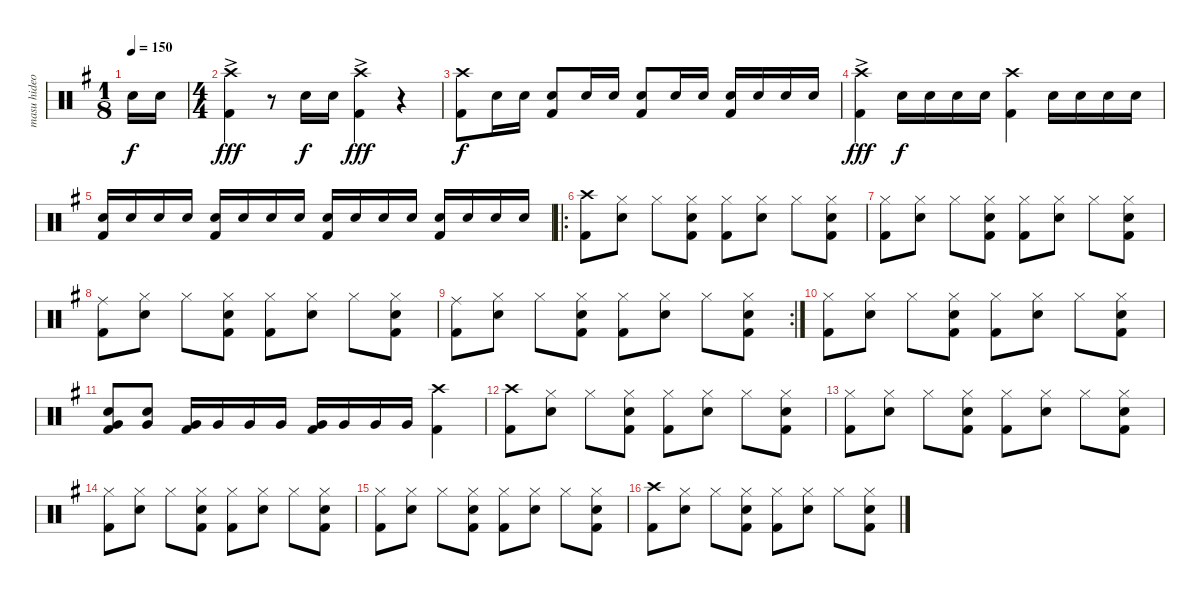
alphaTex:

\track ("masu hideo - drum" "masu hideo") {instrument percussion}
\staff {score}
\articulation defaults
\ts (1 8)
\tempo 150
\clef neutral
\ks g "Electric Snare (hit)".16{dy f} "Electric Snare (hit)".16
|
\ts (4 4)
("Crash high (hit)" "Kick (hit) 2"{ac}).4{dy fff} r.8 "Electric Snare (hit)".16{dy f} "Electric Snare (hit)".16 ("Crash high (hit)" "Kick (hit) 2"{ac}).4{dy fff} r.4 |
("Crash high (hit)" "Kick (hit) 2").8{dy f} "Electric Snare (hit)".16 "Electric Snare (hit)".16 ("Electric Snare (hit)" "Kick (hit) 2").8 "Electric Snare (hit)".16 "Electric Snare (hit)".16 ("Electric Snare (hit)" "Kick (hit) 2").8 "Electric Snare (hit)".16 "Electric Snare (hit)".16 ("Electric Snare (hit)" "Kick (hit) 2").16 "Electric Snare (hit)".16 "Electric Snare (hit)".16 "Electric Snare (hit)".16 |
("Crash high (hit)" "Kick (hit) 2"{ac}).4{dy fff} "Electric Snare (hit)".16{dy f} "Electric Snare (hit)".16 "Electric Snare (hit)".16 "Electric Snare (hit)".16 ("Crash high (hit)" "Kick (hit) 2").4 "Electric Snare (hit)".16 "Electric Snare (hit)".16 "Electric Snare (hit)".16 "Electric Snare (hit)".16 |
("Electric Snare (hit)" "Kick (hit) 2").16 "Electric Snare (hit)".16 "Electric Snare (hit)".16 "Electric Snare (hit)".16 ("Electric Snare (hit)" "Kick (hit) 2").16 "Electric Snare (hit)".16 "Electric Snare (hit)".16 "Electric Snare (hit)".16 ("Electric Snare (hit)" "Kick (hit) 2").16 "Electric Snare (hit)".16 "Electric Snare (hit)".16 "Electric Snare (hit)".16 ("Electric Snare (hit)" "Kick (hit) 2").16 "Electric Snare (hit)".16 "Electric Snare (hit)".16 "Electric Snare (hit)".16 |
\ro
("Crash high (hit)" "Kick (hit) 2").8 ("Hi-Hat (closed)" "Electric Snare (hit)").8 "Hi-Hat (closed)".8 ("Hi-Hat (closed)" "Electric Snare (hit)" "Kick (hit) 2").8 ("Hi-Hat (closed)" "Kick (hit) 2").8 ("Hi-Hat (closed)" "Electric Snare (hit)").8 "Hi-Hat (closed)".8 ("Hi-Hat (closed)" "Electric Snare (hit)" "Kick (hit) 2").8 |
("Hi-Hat (closed)" "Kick (hit) 2").8 ("Hi-Hat (closed)" "Electric Snare (hit)").8 "Hi-Hat (closed)".8 ("Hi-Hat (closed)" "Electric Snare (hit)" "Kick (hit) 2").8 ("Hi-Hat (closed)" "Kick (hit) 2").8 ("Hi-Hat (closed)" "Electric Snare (hit)").8 "Hi-Hat (closed)".8 ("Hi-Hat (closed)" "Electric Snare (hit)" "Kick (hit) 2").8 |
("Ride (middle)" "Kick (hit) 2").8 ("Hi-Hat (closed)" "Electric Snare (hit)").8 "Hi-Hat (closed)".8 ("Hi-Hat (closed)" "Electric Snare (hit)" "Kick (hit) 2").8 ("Hi-Hat (closed)" "Kick (hit) 2").8 ("Hi-Hat (closed)" "Electric Snare (hit)").8 "Hi-Hat (closed)".8 ("Hi-Hat (closed)" "Electric Snare (hit)" "Kick (hit) 2").8 |
\rc 2
("Ride (middle)" "Kick (hit) 2").8 ("Hi-Hat (closed)" "Electric Snare (hit)").8 "Hi-Hat (closed)".8 ("Hi-Hat (closed)" "Electric Snare (hit)" "Kick (hit) 2").8 ("Hi-Hat (closed)" "Kick (hit) 2").8 ("Hi-Hat (closed)" "Electric Snare (hit)").8 "Hi-Hat (closed)".8 ("Hi-Hat (closed)" "Electric Snare (hit)" "Kick (hit) 2").8 |
("Hi-Hat (closed)" "Kick (hit) 2").8 ("Hi-Hat (closed)" "Electric Snare (hit)").8 "Hi-Hat (closed)".8 ("Hi-Hat (closed)" "Electric Snare (hit)" "Kick (hit) 2").8 ("Hi-Hat (closed)" "Kick (hit) 2").8 ("Hi-Hat (closed)" "Electric Snare (hit)").8 "Hi-Hat (closed)".8 ("Hi-Hat (closed)" "Electric Snare (hit)" "Kick (hit) 2").8 |
("Electric Snare (hit)" "Very Low Tom (hit)" "Kick (hit) 2").8 ("Electric Snare (hit)" "Very Low Tom (hit)").8 ("Very Low Tom (hit)" "Kick (hit) 2").16 "Very Low Tom (hit)".16 "Very Low Tom (hit)".16 "Very Low Tom (hit)".16 ("Very Low Tom (hit)" "Kick (hit) 2").16 "Very Low Tom (hit)".16 "Very Low Tom (hit)".16 "Very Low Tom (hit)".16 ("Crash high (hit)" "Kick (hit) 2").4 |
("Crash high (hit)" "Kick (hit) 2").8 ("Hi-Hat (closed)" "Electric Snare (hit)").8 "Hi-Hat (closed)".8 ("Hi-Hat (closed)" "Electric Snare (hit)" "Kick (hit) 2").8 ("Hi-Hat (closed)" "Kick (hit) 2").8 ("Hi-Hat (closed)" "Electric Snare (hit)").8 "Hi-Hat (closed)".8 ("Hi-Hat (closed)" "Electric Snare (hit)" "Kick (hit) 2").8 |
("Hi-Hat (closed)" "Kick (hit) 2").8 ("Hi-Hat (closed)" "Electric Snare (hit)").8 "Hi-Hat (closed)".8 ("Hi-Hat (closed)" "Electric Snare (hit)" "Kick (hit) 2").8 ("Hi-Hat (closed)" "Kick (hit) 2").8 ("Hi-Hat (closed)" "Electric Snare (hit)").8 "Hi-Hat (closed)".8 ("Hi-Hat (closed)" "Electric Snare (hit)" "Kick (hit) 2").8 |
("Hi-Hat (closed)" "Kick (hit) 2").8 ("Hi-Hat (closed)" "Electric Snare (hit)").8 "Hi-Hat (closed)".8 ("Hi-Hat (closed)" "Electric Snare (hit)" "Kick (hit) 2").8 ("Hi-Hat (closed)" "Kick (hit) 2").8 ("Hi-Hat (closed)" "Electric Snare (hit)").8 "Hi-Hat (closed)".8 ("Hi-Hat (closed)" "Electric Snare (hit)" "Kick (hit) 2").8 |
("Hi-Hat (closed)" "Kick (hit) 2").8 ("Hi-Hat (closed)" "Electric Snare (hit)").8 "Hi-Hat (closed)".8 ("Hi-Hat (closed)" "Electric Snare (hit)" "Kick (hit) 2").8 ("Hi-Hat (closed)" "Kick (hit) 2").8 ("Hi-Hat (closed)" "Electric Snare (hit)").8 "Hi-Hat (closed)".8 ("Hi-Hat (closed)" "Electric Snare (hit)" "Kick (hit) 2").8 |
("Crash high (hit)" "Kick (hit) 2").8 ("Hi-Hat (closed)" "Electric Snare (hit)").8 "Hi-Hat (closed)".8 ("Hi-Hat (closed)" "Electric Snare (hit)" "Kick (hit) 2").8 ("Hi-Hat (closed)" "Kick (hit) 2").8 ("Hi-Hat (closed)" "Electric Snare (hit)").8 "Hi-Hat (closed)".8 ("Hi-Hat (closed)" "Electric Snare (hit)" "Kick (hit) 2").8
